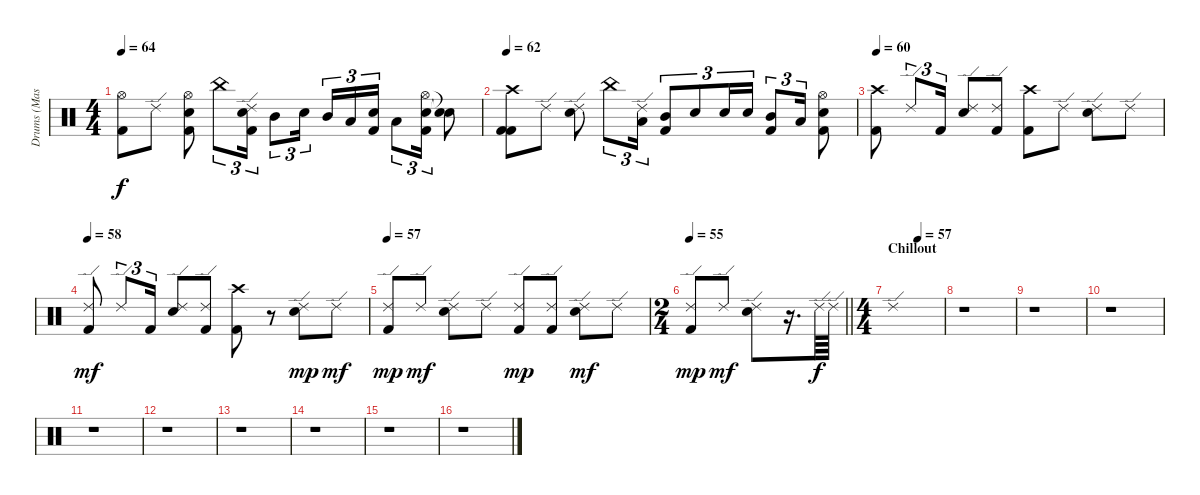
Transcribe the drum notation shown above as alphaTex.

\track ("Drums (Mason)" "Drums (Mas") {instrument percussion}
\staff {score}
\articulation defaults
\ts (4 4)
\tempo 64
\clef neutral
\ks c
("Hi-Hat (open)" "Kick (hit) 2").8{dy f} "Ride (edge) 2".8 ("Hi-Hat (open)" "Electric Snare (hit)" "Kick (hit) 2").8 "China (hit)".8{tu (3 2)} ("Ride (edge) 2" "Electric Snare (hit)" "Kick (hit) 2").16{tu (3 2)} "Mid Tom (hit)".8{tu (3 2)} "Electric Snare (hit)".16{tu (3 2)} "Mid Tom (hit)".16{tu (3 2)} "Low Tom (hit)".16{tu (3 2)} ("Electric Snare (hit)" "Kick (hit) 2").16{tu (3 2)} "Low Tom (hit)".8{tu (3 2)} ("Hi-Hat (open)" "Electric Snare (hit)" "Kick (hit) 2").16{tu (3 2)} ("Snare (hit)"{t} "Snare (hit)"{t}).8 |
\tempo 62
("Crash high (hit)" "Kick (hit) 2" "Kick (hit) 2").8 "Ride (edge) 2".8 ("Ride (edge) 2" "Electric Snare (hit)").8 "China (hit)".8{tu (3 2)} ("Ride (edge) 2" "Low Tom (hit)").16{tu (3 2)} ("Mid Tom (hit)" "Kick (hit) 2").8{tu (3 2)} "Electric Snare (hit)".8{tu (3 2)} "Electric Snare (hit)".16{tu (3 2)} "Electric Snare (hit)".16{tu (3 2)} ("Mid Tom (hit)" "Kick (hit) 2").8{tu (3 2)} "Low Tom (hit)".16{tu (3 2)} ("Hi-Hat (open)" "Electric Snare (hit)" "Kick (hit) 2").8 |
\tempo 60
("Crash high (hit)" "Kick (hit) 2").8 "Ride (edge) 2".8{tu (3 2)} "Kick (hit) 2".16{tu (3 2)} ("Ride (edge) 2" "Electric Snare (hit)").8 ("Ride (edge) 2" "Kick (hit) 2").8 ("Crash high (hit)" "Kick (hit) 2").8 "Ride (edge) 2".8 ("Ride (edge) 2" "Electric Snare (hit)").8 "Ride (edge) 2".8 |
\tempo 58
("Ride (edge) 2" "Kick (hit) 2").8{dy mf} "Ride (edge) 2".8{tu (3 2)} "Kick (hit) 2".16{tu (3 2)} ("Ride (edge) 2" "Electric Snare (hit)").8 ("Ride (edge) 2" "Kick (hit) 2").8 ("Crash high (hit)" "Kick (hit) 2").8 r.8 ("Ride (edge) 2" "Electric Snare (hit)").8{dy mp} "Ride (edge) 2".8{dy mf} |
\tempo 57
("Ride (edge) 2" "Kick (hit) 2").8{dy mp} "Ride (edge) 2".8{dy mf} ("Ride (edge) 2" "Electric Snare (hit)").8 "Ride (edge) 2".8 ("Ride (edge) 2" "Kick (hit) 2").8{dy mp} ("Ride (edge) 2" "Kick (hit) 2").8 ("Ride (edge) 2" "Electric Snare (hit)").8{dy mf} "Ride (edge) 2".8 |
\ts (2 4)
\tempo 55
\barLineRight lightlight
("Ride (edge) 2" "Kick (hit) 2").8{dy mp} "Ride (edge) 2".8{dy mf} ("Ride (edge) 2" "Electric Snare (hit)").8 r.16{d} "Ride (edge) 2".64{dy f} "Ride (edge) 2".64 |
\ts (4 4)
\section ("" "Chillout")
\tempo (57 0.5)
"Ride (edge) 2".1 |
r.1 |
r.1 |
r.1 |
r.1 |
r.1 |
r.1 |
r.1 |
r.1 |
r.1
